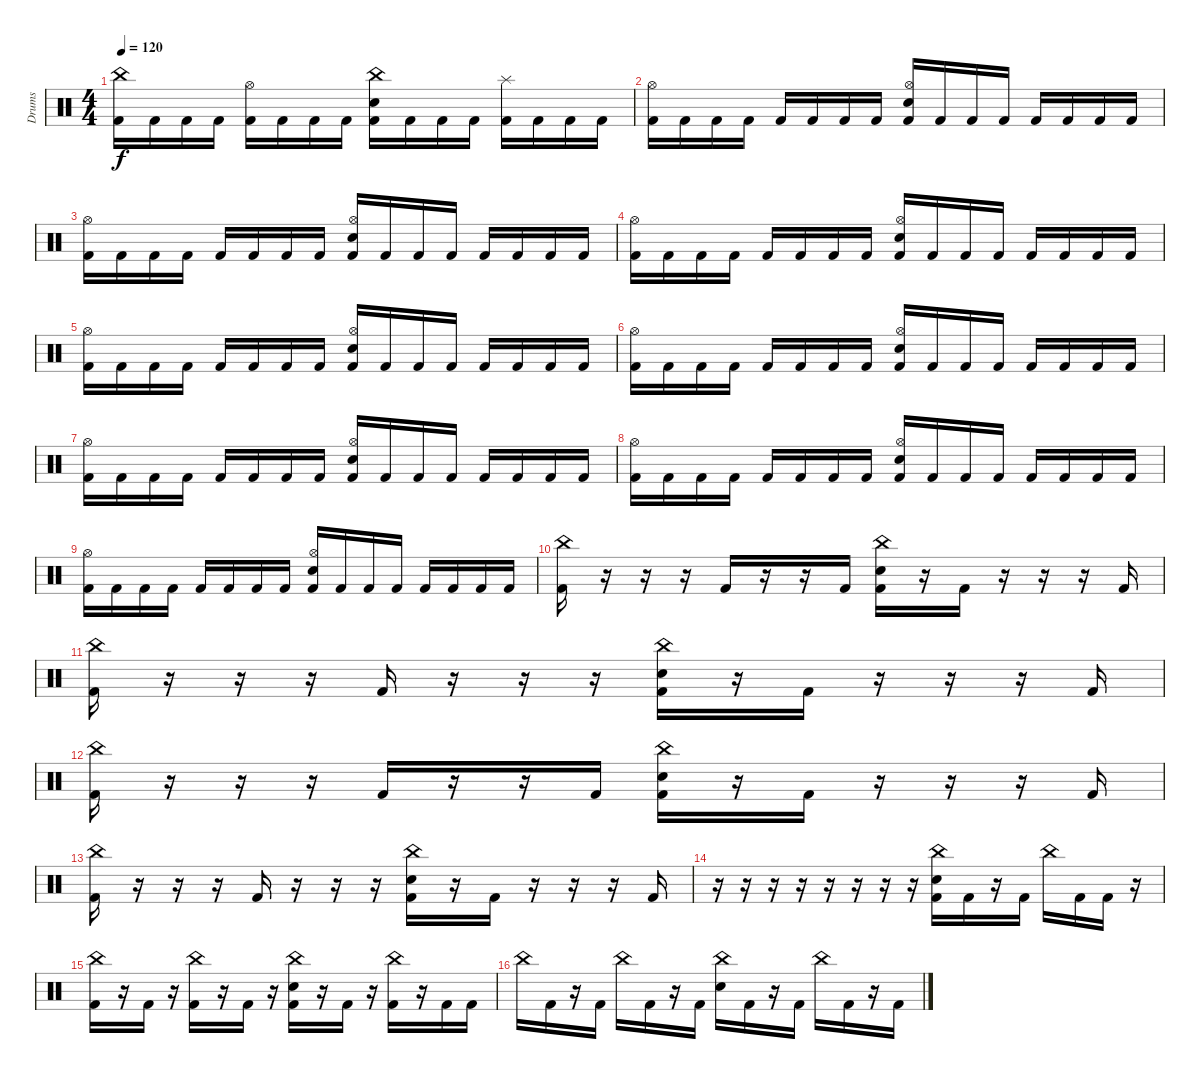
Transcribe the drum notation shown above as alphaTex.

\track ("Drums" "Drums") {instrument percussion}
\staff {score}
\articulation defaults
\ts (4 4)
\tempo 120
\clef neutral
\ks c
("China (hit)" "Kick (hit) 2").16{dy f} "Kick (hit) 2".16 "Kick (hit) 2".16 "Kick (hit) 2".16 ("Hi-Hat (open)" "Kick (hit) 2").16 "Kick (hit) 2".16 "Kick (hit) 2".16 "Kick (hit) 2".16 ("China (hit)" "Snare (hit) 2" "Kick (hit) 2").16 "Kick (hit) 2".16 "Kick (hit) 2".16 "Kick (hit) 2".16 ("Splash (hit)" "Kick (hit) 2").16 "Kick (hit) 2".16 "Kick (hit) 2".16 "Kick (hit) 2".16 |
("Hi-Hat (open)" "Kick (hit) 2").16 "Kick (hit) 2".16 "Kick (hit) 2".16 "Kick (hit) 2".16 "Kick (hit) 2".16 "Kick (hit) 2".16 "Kick (hit) 2".16 "Kick (hit) 2".16 ("Hi-Hat (open)" "Snare (hit) 2" "Kick (hit) 2").16 "Kick (hit) 2".16 "Kick (hit) 2".16 "Kick (hit) 2".16 "Kick (hit) 2".16 "Kick (hit) 2".16 "Kick (hit) 2".16 "Kick (hit) 2".16 |
("Hi-Hat (open)" "Kick (hit) 2").16 "Kick (hit) 2".16 "Kick (hit) 2".16 "Kick (hit) 2".16 "Kick (hit) 2".16 "Kick (hit) 2".16 "Kick (hit) 2".16 "Kick (hit) 2".16 ("Hi-Hat (open)" "Snare (hit) 2" "Kick (hit) 2").16 "Kick (hit) 2".16 "Kick (hit) 2".16 "Kick (hit) 2".16 "Kick (hit) 2".16 "Kick (hit) 2".16 "Kick (hit) 2".16 "Kick (hit) 2".16 |
("Hi-Hat (open)" "Kick (hit) 2").16 "Kick (hit) 2".16 "Kick (hit) 2".16 "Kick (hit) 2".16 "Kick (hit) 2".16 "Kick (hit) 2".16 "Kick (hit) 2".16 "Kick (hit) 2".16 ("Hi-Hat (open)" "Snare (hit) 2" "Kick (hit) 2").16 "Kick (hit) 2".16 "Kick (hit) 2".16 "Kick (hit) 2".16 "Kick (hit) 2".16 "Kick (hit) 2".16 "Kick (hit) 2".16 "Kick (hit) 2".16 |
("Hi-Hat (open)" "Kick (hit) 2").16 "Kick (hit) 2".16 "Kick (hit) 2".16 "Kick (hit) 2".16 "Kick (hit) 2".16 "Kick (hit) 2".16 "Kick (hit) 2".16 "Kick (hit) 2".16 ("Hi-Hat (open)" "Snare (hit) 2" "Kick (hit) 2").16 "Kick (hit) 2".16 "Kick (hit) 2".16 "Kick (hit) 2".16 "Kick (hit) 2".16 "Kick (hit) 2".16 "Kick (hit) 2".16 "Kick (hit) 2".16 |
("Hi-Hat (open)" "Kick (hit) 2").16 "Kick (hit) 2".16 "Kick (hit) 2".16 "Kick (hit) 2".16 "Kick (hit) 2".16 "Kick (hit) 2".16 "Kick (hit) 2".16 "Kick (hit) 2".16 ("Hi-Hat (open)" "Snare (hit) 2" "Kick (hit) 2").16 "Kick (hit) 2".16 "Kick (hit) 2".16 "Kick (hit) 2".16 "Kick (hit) 2".16 "Kick (hit) 2".16 "Kick (hit) 2".16 "Kick (hit) 2".16 |
("Hi-Hat (open)" "Kick (hit) 2").16 "Kick (hit) 2".16 "Kick (hit) 2".16 "Kick (hit) 2".16 "Kick (hit) 2".16 "Kick (hit) 2".16 "Kick (hit) 2".16 "Kick (hit) 2".16 ("Hi-Hat (open)" "Snare (hit) 2" "Kick (hit) 2").16 "Kick (hit) 2".16 "Kick (hit) 2".16 "Kick (hit) 2".16 "Kick (hit) 2".16 "Kick (hit) 2".16 "Kick (hit) 2".16 "Kick (hit) 2".16 |
("Hi-Hat (open)" "Kick (hit) 2").16 "Kick (hit) 2".16 "Kick (hit) 2".16 "Kick (hit) 2".16 "Kick (hit) 2".16 "Kick (hit) 2".16 "Kick (hit) 2".16 "Kick (hit) 2".16 ("Hi-Hat (open)" "Snare (hit) 2" "Kick (hit) 2").16 "Kick (hit) 2".16 "Kick (hit) 2".16 "Kick (hit) 2".16 "Kick (hit) 2".16 "Kick (hit) 2".16 "Kick (hit) 2".16 "Kick (hit) 2".16 |
("Hi-Hat (open)" "Kick (hit) 2").16 "Kick (hit) 2".16 "Kick (hit) 2".16 "Kick (hit) 2".16 "Kick (hit) 2".16 "Kick (hit) 2".16 "Kick (hit) 2".16 "Kick (hit) 2".16 ("Hi-Hat (open)" "Snare (hit) 2" "Kick (hit) 2").16 "Kick (hit) 2".16 "Kick (hit) 2".16 "Kick (hit) 2".16 "Kick (hit) 2".16 "Kick (hit) 2".16 "Kick (hit) 2".16 "Kick (hit) 2".16 |
("China (hit)" "Kick (hit) 2").16 r.16 r.16 r.16 "Kick (hit) 2".16 r.16 r.16 "Kick (hit) 2".16 ("China (hit)" "Snare (hit) 2" "Kick (hit) 2").16 r.16 "Kick (hit) 2".16 r.16 r.16 r.16 "Kick (hit) 2".16 |
("China (hit)" "Kick (hit) 2").16 r.16 r.16 r.16 "Kick (hit) 2".16 r.16 r.16 r.16 ("China (hit)" "Snare (hit) 2" "Kick (hit) 2").16 r.16 "Kick (hit) 2".16 r.16 r.16 r.16 "Kick (hit) 2".16 |
("China (hit)" "Kick (hit) 2").16 r.16 r.16 r.16 "Kick (hit) 2".16 r.16 r.16 "Kick (hit) 2".16 ("China (hit)" "Snare (hit) 2" "Kick (hit) 2").16 r.16 "Kick (hit) 2".16 r.16 r.16 r.16 "Kick (hit) 2".16 |
("China (hit)" "Kick (hit) 2").16 r.16 r.16 r.16 "Kick (hit) 2".16 r.16 r.16 r.16 ("China (hit)" "Snare (hit) 2" "Kick (hit) 2").16 r.16 "Kick (hit) 2".16 r.16 r.16 r.16 "Kick (hit) 2".16 |
r.16 r.16 r.16 r.16 r.16 r.16 r.16 r.16 ("China (hit)" "Snare (hit) 2" "Kick (hit) 2").16 "Kick (hit) 2".16 r.16 "Kick (hit) 2".16 "China (hit)".16 "Kick (hit) 2".16 "Kick (hit) 2".16 r.16 |
("China (hit)" "Kick (hit) 2").16 r.16 "Kick (hit) 2".16 r.16 ("China (hit)" "Kick (hit) 2").16 r.16 "Kick (hit) 2".16 r.16 ("China (hit)" "Snare (hit) 2" "Kick (hit) 2").16 r.16 "Kick (hit) 2".16 r.16 ("China (hit)" "Kick (hit) 2").16 r.16 "Kick (hit) 2".16 "Kick (hit) 2".16 |
"China (hit)".16 "Kick (hit) 2".16 r.16 "Kick (hit) 2".16 "China (hit)".16 "Kick (hit) 2".16 r.16 "Kick (hit) 2".16 ("China (hit)" "Snare (hit) 2").16 "Kick (hit) 2".16 r.16 "Kick (hit) 2".16 "China (hit)".16 "Kick (hit) 2".16 r.16 "Kick (hit) 2".16
